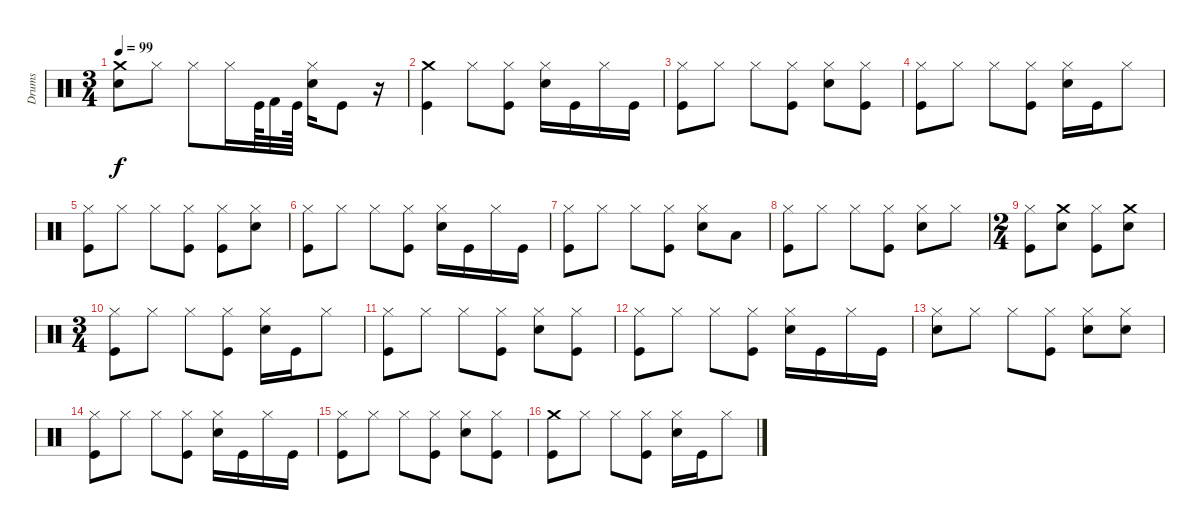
\track ("Drums" "Drums") {instrument percussion}
\staff {score}
\articulation defaults
\ts (3 4)
\tempo 99
\clef neutral
\ks c
("Crash medium (hit)" "Snare (hit) 2").8{dy f} "Hi-Hat (closed)".8 "Hi-Hat (closed)".8 "Hi-Hat (closed)".16 "Kick (hit)".64 "Kick (hit) 2".32 "Kick (hit)".64 ("Snare (hit) 2" "Hi-Hat (closed)").16 "Kick (hit)".8 r.16 |
("Kick (hit)" "Crash medium (hit)").4 "Hi-Hat (closed)".8 ("Kick (hit)" "Hi-Hat (closed)").8 ("Hi-Hat (closed)" "Snare (hit) 2").16 "Kick (hit)".16 "Hi-Hat (closed)".16 "Kick (hit)".16 |
("Kick (hit)" "Hi-Hat (closed)").8 "Hi-Hat (closed)".8 "Hi-Hat (closed)".8 ("Hi-Hat (closed)" "Kick (hit)").8 ("Snare (hit) 2" "Hi-Hat (closed)").8 ("Hi-Hat (closed)" "Kick (hit)").8 |
("Hi-Hat (closed)" "Kick (hit)").8 "Hi-Hat (closed)".8 "Hi-Hat (closed)".8 ("Hi-Hat (closed)" "Kick (hit)").8 ("Snare (hit) 2" "Hi-Hat (closed)").16 "Kick (hit)".16 "Hi-Hat (closed)".8 |
("Hi-Hat (closed)" "Kick (hit)").8 "Hi-Hat (closed)".8 "Hi-Hat (closed)".8 ("Kick (hit)" "Hi-Hat (closed)").8 ("Hi-Hat (closed)" "Kick (hit)").8 ("Snare (hit) 2" "Hi-Hat (closed)").8 |
("Kick (hit)" "Hi-Hat (closed)").8 "Hi-Hat (closed)".8 "Hi-Hat (closed)".8 ("Kick (hit)" "Hi-Hat (closed)").8 ("Snare (hit) 2" "Hi-Hat (closed)").16 "Kick (hit)".16 "Hi-Hat (closed)".16 "Kick (hit)".16 |
("Hi-Hat (closed)" "Kick (hit)").8 "Hi-Hat (closed)".8 "Hi-Hat (closed)".8 ("Hi-Hat (closed)" "Kick (hit)").8 ("Snare (hit) 2" "Hi-Hat (closed)").8 "Low Tom (hit)".8 |
("Hi-Hat (closed)" "Kick (hit)").8 "Hi-Hat (closed)".8 "Hi-Hat (closed)".8 ("Kick (hit)" "Hi-Hat (closed)").8 ("Snare (hit) 2" "Hi-Hat (closed)").8 "Hi-Hat (closed)".8 |
\ts (2 4)
("Hi-Hat (closed)" "Kick (hit)").8 ("Snare (hit) 2" "Crash medium (hit)").8 ("Hi-Hat (closed)" "Kick (hit)").8 ("Crash medium (hit)" "Snare (hit) 2").8 |
\ts (3 4)
("Hi-Hat (closed)" "Kick (hit)").8 "Hi-Hat (closed)".8 "Hi-Hat (closed)".8 ("Hi-Hat (closed)" "Kick (hit)").8 ("Snare (hit) 2" "Hi-Hat (closed)").16 "Kick (hit)".16 "Hi-Hat (closed)".8 |
("Hi-Hat (closed)" "Kick (hit)").8 "Hi-Hat (closed)".8 "Hi-Hat (closed)".8 ("Kick (hit)" "Hi-Hat (closed)").8 ("Hi-Hat (closed)" "Snare (hit) 2").8 ("Kick (hit)" "Hi-Hat (closed)").8 |
("Hi-Hat (closed)" "Kick (hit)").8 "Hi-Hat (closed)".8 "Hi-Hat (closed)".8 ("Hi-Hat (closed)" "Kick (hit)").8 ("Snare (hit) 2" "Hi-Hat (closed)").16 "Kick (hit)".16 "Hi-Hat (closed)".16 "Kick (hit)".16 |
("Hi-Hat (closed)" "Snare (hit) 2").8 "Hi-Hat (closed)".8 "Hi-Hat (closed)".8 ("Kick (hit)" "Hi-Hat (closed)").8 ("Hi-Hat (closed)" "Snare (hit) 2").8 ("Snare (hit) 2" "Hi-Hat (closed)").8 |
("Hi-Hat (closed)" "Kick (hit)").8 "Hi-Hat (closed)".8 "Hi-Hat (closed)".8 ("Kick (hit)" "Hi-Hat (closed)").8 ("Hi-Hat (closed)" "Snare (hit) 2").16 "Kick (hit)".16 "Hi-Hat (closed)".16 "Kick (hit)".16 |
("Hi-Hat (closed)" "Kick (hit)").8 "Hi-Hat (closed)".8 "Hi-Hat (closed)".8 ("Hi-Hat (closed)" "Kick (hit)").8 ("Snare (hit) 2" "Hi-Hat (closed)").8 ("Hi-Hat (closed)" "Kick (hit)").8 |
("Crash medium (hit)" "Kick (hit)").8 "Hi-Hat (closed)".8 "Hi-Hat (closed)".8 ("Kick (hit)" "Hi-Hat (closed)").8 ("Hi-Hat (closed)" "Snare (hit) 2").16 "Kick (hit)".16 "Hi-Hat (closed)".8
